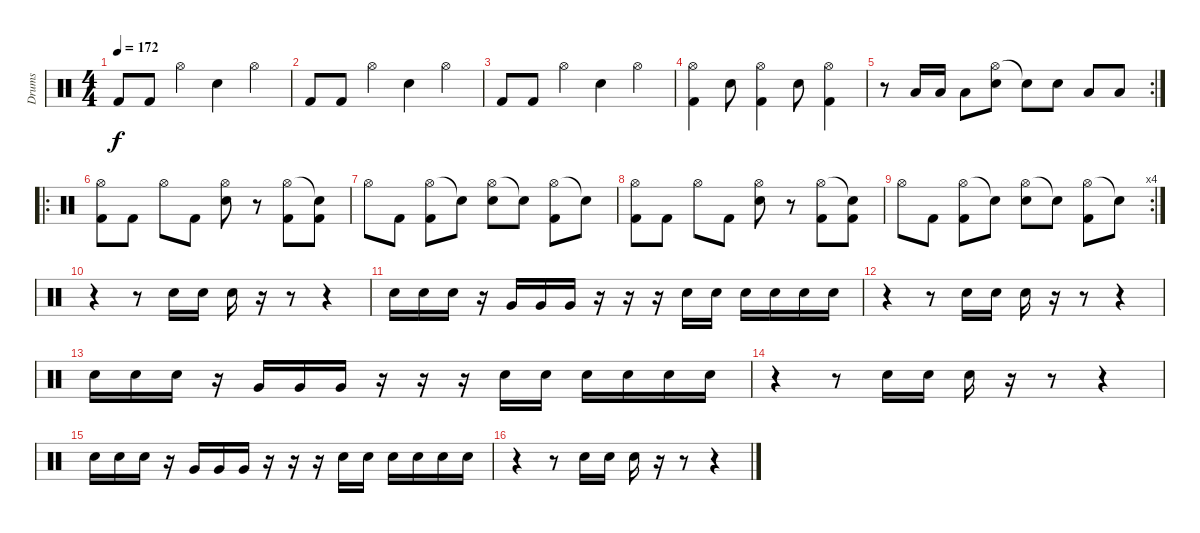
\track ("Drums" "Drums") {instrument percussion}
\staff {score}
\articulation defaults
\ts (4 4)
\tempo 172
\clef neutral
\ks c "Kick (hit) 2".8{dy f} "Kick (hit) 2".8 "Hi-Hat (open)".4 "Electric Snare (hit)".4 "Hi-Hat (open)".4
|
"Kick (hit) 2".8 "Kick (hit) 2".8 "Hi-Hat (open)".4 "Electric Snare (hit)".4 "Hi-Hat (open)".4 |
"Kick (hit) 2".8 "Kick (hit) 2".8 "Hi-Hat (open)".4 "Electric Snare (hit)".4 "Hi-Hat (open)".4 |
("Hi-Hat (open)" "Kick (hit) 2").4 "Electric Snare (hit)".8 ("Hi-Hat (open)" "Kick (hit) 2").4 "Electric Snare (hit)".8 ("Hi-Hat (open)" "Kick (hit) 2").4 |
\rc 2
r.8 "Low Floor Tom (hit)".16 "Low Floor Tom (hit)".16 "Low Floor Tom (hit)".8 ("Hi-Hat (open)" "Electric Snare (hit)").8 "Electric Snare (hit)"{t}.8 "Electric Snare (hit)".8 "Low Tom (hit)".8 "Low Floor Tom (hit)".8 |
\ro
("Hi-Hat (open)" "Kick (hit) 2").8 "Kick (hit) 2".8 "Hi-Hat (open)".8 "Kick (hit) 2".8 ("Hi-Hat (open)" "Electric Snare (hit)").8 r.8 ("Hi-Hat (open)" "Kick (hit) 2").8 ("Snare (hit)"{t} "Kick (hit) 2").8 |
"Hi-Hat (open)".8 "Kick (hit) 2".8 ("Hi-Hat (open)" "Kick (hit) 2").8 "Snare (hit)"{t}.8 ("Hi-Hat (open)" "Electric Snare (hit)").8 "Snare (hit)"{t}.8 ("Hi-Hat (open)" "Kick (hit) 2").8 "Snare (hit)"{t}.8 |
("Hi-Hat (open)" "Kick (hit) 2").8 "Kick (hit) 2".8 "Hi-Hat (open)".8 "Kick (hit) 2".8 ("Hi-Hat (open)" "Electric Snare (hit)").8 r.8 ("Hi-Hat (open)" "Kick (hit) 2").8 ("Snare (hit)"{t} "Kick (hit) 2").8 |
\rc 4 "Hi-Hat (open)".8 "Kick (hit) 2".8
("Hi-Hat (open)" "Kick (hit) 2").8 "Snare (hit)"{t}.8 ("Hi-Hat (open)" "Electric Snare (hit)").8 "Snare (hit)"{t}.8 ("Hi-Hat (open)" "Kick (hit) 2").8 "Snare (hit)"{t}.8 |
r.4 r.8 "Electric Snare (hit)".16 "Electric Snare (hit)".16 "Electric Snare (hit)".16 r.16 r.8 r.4 |
"Electric Snare (hit)".16 "Electric Snare (hit)".16 "Electric Snare (hit)".16 r.16 "Very Low Tom (hit)".16 "Very Low Tom (hit)".16 "Very Low Tom (hit)".16 r.16 r.16 r.16 "Electric Snare (hit)".16 "Electric Snare (hit)".16 "Electric Snare (hit)".16 "Electric Snare (hit)".16 "Electric Snare (hit)".16 "Electric Snare (hit)".16 |
r.4 r.8 "Electric Snare (hit)".16 "Electric Snare (hit)".16 "Electric Snare (hit)".16 r.16 r.8 r.4 |
"Electric Snare (hit)".16 "Electric Snare (hit)".16 "Electric Snare (hit)".16 r.16 "Very Low Tom (hit)".16 "Very Low Tom (hit)".16 "Very Low Tom (hit)".16 r.16 r.16 r.16 "Electric Snare (hit)".16 "Electric Snare (hit)".16 "Electric Snare (hit)".16 "Electric Snare (hit)".16 "Electric Snare (hit)".16 "Electric Snare (hit)".16 |
r.4 r.8 "Electric Snare (hit)".16 "Electric Snare (hit)".16 "Electric Snare (hit)".16 r.16 r.8 r.4 |
"Electric Snare (hit)".16 "Electric Snare (hit)".16 "Electric Snare (hit)".16 r.16 "Very Low Tom (hit)".16 "Very Low Tom (hit)".16 "Very Low Tom (hit)".16 r.16 r.16 r.16 "Electric Snare (hit)".16 "Electric Snare (hit)".16 "Electric Snare (hit)".16 "Electric Snare (hit)".16 "Electric Snare (hit)".16 "Electric Snare (hit)".16 |
r.4 r.8 "Electric Snare (hit)".16 "Electric Snare (hit)".16 "Electric Snare (hit)".16 r.16 r.8 r.4
